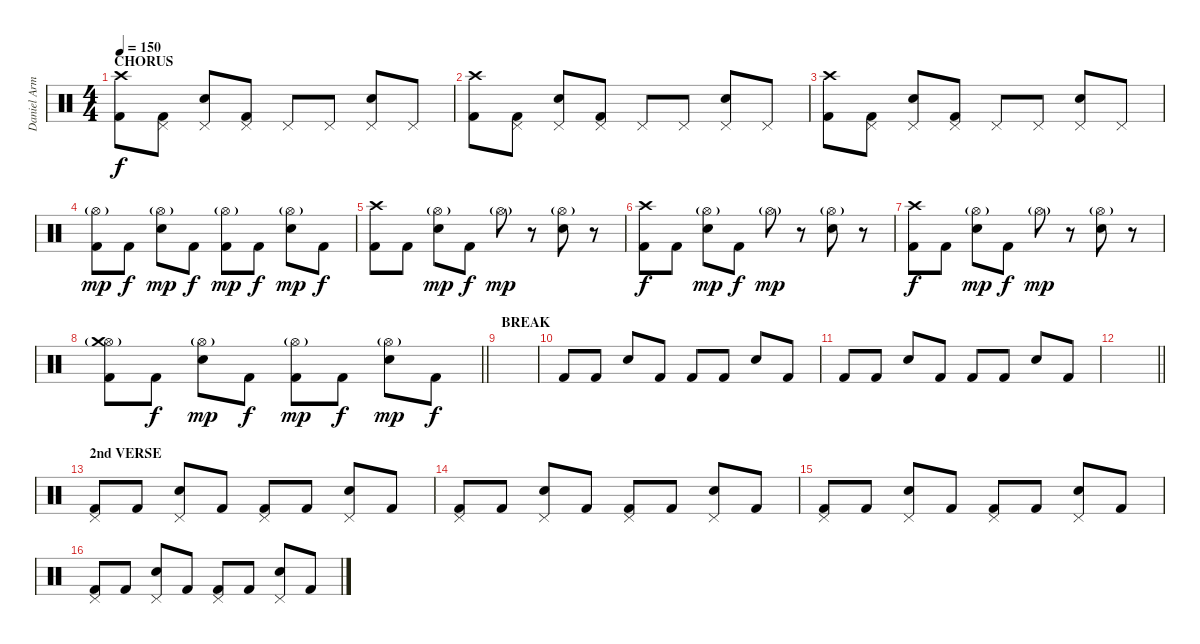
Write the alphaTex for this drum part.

\track ("Daniel Armstrong" "Daniel Arm") {instrument percussion}
\staff {score}
\articulation defaults
\ts (4 4)
\section ("" "CHORUS")
\tempo 150
\clef neutral
\ks c
("Crash high (hit)" "Kick (hit) 2").8{dy f} ("Pedal Hi-Hat (hit)" "Kick (hit) 2").8 ("Pedal Hi-Hat (hit)" "Electric Snare (hit)").8 ("Pedal Hi-Hat (hit)" "Kick (hit) 2").8 "Pedal Hi-Hat (hit)".8 "Pedal Hi-Hat (hit)".8 ("Pedal Hi-Hat (hit)" "Electric Snare (hit)").8 "Pedal Hi-Hat (hit)".8 |
("Crash high (hit)" "Kick (hit) 2").8 ("Pedal Hi-Hat (hit)" "Kick (hit) 2").8 ("Pedal Hi-Hat (hit)" "Electric Snare (hit)").8 ("Pedal Hi-Hat (hit)" "Kick (hit) 2").8 "Pedal Hi-Hat (hit)".8 "Pedal Hi-Hat (hit)".8 ("Pedal Hi-Hat (hit)" "Electric Snare (hit)").8 "Pedal Hi-Hat (hit)".8 |
("Crash high (hit)" "Kick (hit) 2").8 ("Pedal Hi-Hat (hit)" "Kick (hit) 2").8 ("Pedal Hi-Hat (hit)" "Electric Snare (hit)").8 ("Pedal Hi-Hat (hit)" "Kick (hit) 2").8 "Pedal Hi-Hat (hit)".8 "Pedal Hi-Hat (hit)".8 ("Pedal Hi-Hat (hit)" "Electric Snare (hit)").8 "Pedal Hi-Hat (hit)".8 |
("Hi-Hat (open)"{g} "Kick (hit) 2").8{dy mp} "Kick (hit) 2".8{dy f} ("Hi-Hat (open)"{g} "Electric Snare (hit)").8{dy mp} "Kick (hit) 2".8{dy f} ("Hi-Hat (open)"{g} "Kick (hit) 2").8{dy mp} "Kick (hit) 2".8{dy f} ("Hi-Hat (open)"{g} "Electric Snare (hit)").8{dy mp} "Kick (hit) 2".8{dy f} |
("Crash high (hit)" "Kick (hit) 2").8 "Kick (hit) 2".8 ("Hi-Hat (open)"{g} "Electric Snare (hit)").8{dy mp} "Kick (hit) 2".8{dy f} "Hi-Hat (open)"{g}.8{dy mp} r.8 ("Hi-Hat (open)"{g} "Electric Snare (hit)").8 r.8 |
("Crash high (hit)" "Kick (hit) 2").8{dy f} "Kick (hit) 2".8 ("Hi-Hat (open)"{g} "Electric Snare (hit)").8{dy mp} "Kick (hit) 2".8{dy f} "Hi-Hat (open)"{g}.8{dy mp} r.8 ("Hi-Hat (open)"{g} "Electric Snare (hit)").8 r.8 |
("Crash high (hit)" "Kick (hit) 2").8{dy f} "Kick (hit) 2".8 ("Hi-Hat (open)"{g} "Electric Snare (hit)").8{dy mp} "Kick (hit) 2".8{dy f} "Hi-Hat (open)"{g}.8{dy mp} r.8 ("Hi-Hat (open)"{g} "Electric Snare (hit)").8 r.8 |
\barLineRight lightlight
("Hi-Hat (open)"{g} "Crash medium (hit)" "Kick (hit) 2").8 "Kick (hit) 2".8{dy f} ("Hi-Hat (open)"{g} "Electric Snare (hit)").8{dy mp} "Kick (hit) 2".8{dy f} ("Hi-Hat (open)"{g} "Kick (hit) 2").8{dy mp} "Kick (hit) 2".8{dy f} ("Hi-Hat (open)"{g} "Electric Snare (hit)").8{dy mp} "Kick (hit) 2".8{dy f} |
\section ("" "BREAK")
|
"Kick (hit) 2".8 "Kick (hit) 2".8 "Electric Snare (hit)".8 "Kick (hit) 2".8 "Kick (hit) 2".8 "Kick (hit) 2".8 "Electric Snare (hit)".8 "Kick (hit) 2".8 |
"Kick (hit) 2".8 "Kick (hit) 2".8 "Electric Snare (hit)".8 "Kick (hit) 2".8 "Kick (hit) 2".8 "Kick (hit) 2".8 "Electric Snare (hit)".8 "Kick (hit) 2".8 |
\barLineRight lightlight
|
\section ("" "2nd VERSE")
("Pedal Hi-Hat (hit)" "Kick (hit) 2").8 "Kick (hit) 2".8 ("Pedal Hi-Hat (hit)" "Electric Snare (hit)").8 "Kick (hit) 2".8 ("Pedal Hi-Hat (hit)" "Kick (hit) 2").8 "Kick (hit) 2".8 ("Pedal Hi-Hat (hit)" "Electric Snare (hit)").8 "Kick (hit) 2".8 |
("Pedal Hi-Hat (hit)" "Kick (hit) 2").8 "Kick (hit) 2".8 ("Pedal Hi-Hat (hit)" "Electric Snare (hit)").8 "Kick (hit) 2".8 ("Pedal Hi-Hat (hit)" "Kick (hit) 2").8 "Kick (hit) 2".8 ("Pedal Hi-Hat (hit)" "Electric Snare (hit)").8 "Kick (hit) 2".8 |
("Pedal Hi-Hat (hit)" "Kick (hit) 2").8 "Kick (hit) 2".8 ("Pedal Hi-Hat (hit)" "Electric Snare (hit)").8 "Kick (hit) 2".8 ("Pedal Hi-Hat (hit)" "Kick (hit) 2").8 "Kick (hit) 2".8 ("Pedal Hi-Hat (hit)" "Electric Snare (hit)").8 "Kick (hit) 2".8 |
("Pedal Hi-Hat (hit)" "Kick (hit) 2").8 "Kick (hit) 2".8 ("Pedal Hi-Hat (hit)" "Electric Snare (hit)").8 "Kick (hit) 2".8 ("Pedal Hi-Hat (hit)" "Kick (hit) 2").8 "Kick (hit) 2".8 ("Pedal Hi-Hat (hit)" "Electric Snare (hit)").8 "Kick (hit) 2".8
